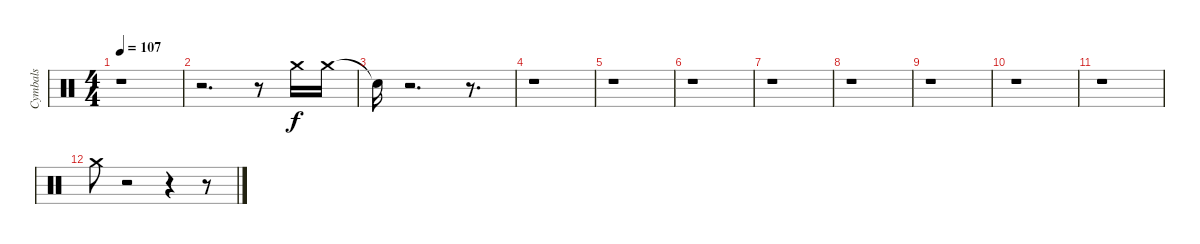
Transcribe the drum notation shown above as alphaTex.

\track ("Cymbals" "Cymbals") {instrument percussion}
\staff {score}
\articulation defaults
\ts (4 4)
\tempo 107
\clef neutral
\ks c
r.1{dy f} |
r.2{d} r.8 "Crash medium (hit)".16 "Crash medium (hit)".16 |
"Snare (hit)"{t}.16 r.2{d} r.8{d} |
r.1 |
r.1 |
r.1 |
r.1 |
r.1 |
r.1 |
r.1 |
r.1 |
"Crash medium (hit)".8 r.2 r.4 r.8
